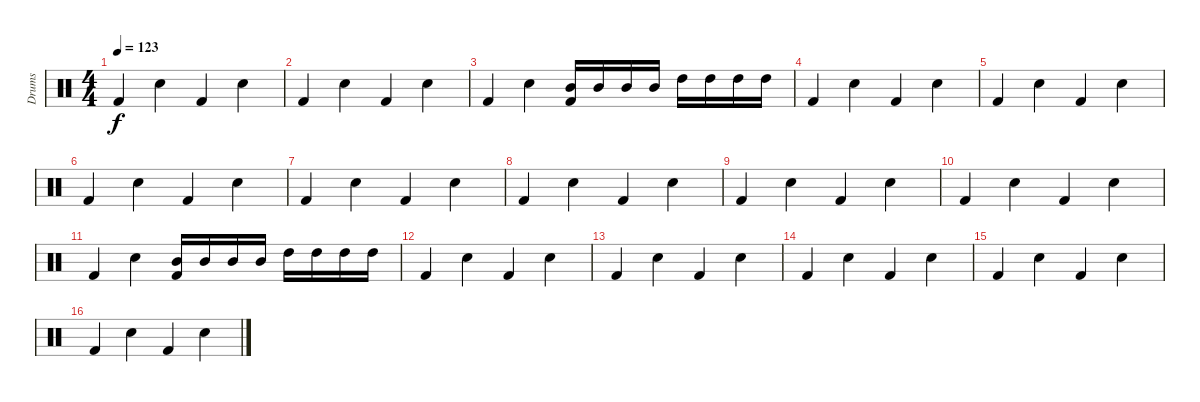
\track ("Drums" "Drums") {instrument percussion}
\staff {score}
\articulation defaults
\ts (4 4)
\tempo 123
\clef neutral
\ks c "Kick (hit) 2".4{dy f} "Electric Snare (hit)".4 "Kick (hit) 2".4 "Electric Snare (hit)".4
|
"Kick (hit) 2".4 "Electric Snare (hit)".4 "Kick (hit) 2".4 "Electric Snare (hit)".4 |
"Kick (hit) 2".4 "Electric Snare (hit)".4 ("Mid Tom (hit)" "Kick (hit) 2").16 "Mid Tom (hit)".16 "Mid Tom (hit)".16 "Mid Tom (hit)".16 "High Tom (hit)".16 "High Tom (hit)".16 "High Tom (hit)".16 "High Tom (hit)".16 |
"Kick (hit) 2".4 "Electric Snare (hit)".4 "Kick (hit) 2".4 "Electric Snare (hit)".4 |
"Kick (hit) 2".4 "Electric Snare (hit)".4 "Kick (hit) 2".4 "Electric Snare (hit)".4 |
"Kick (hit) 2".4 "Electric Snare (hit)".4 "Kick (hit) 2".4 "Electric Snare (hit)".4 |
"Kick (hit) 2".4 "Electric Snare (hit)".4 "Kick (hit) 2".4 "Electric Snare (hit)".4 |
"Kick (hit) 2".4 "Electric Snare (hit)".4 "Kick (hit) 2".4 "Electric Snare (hit)".4 |
"Kick (hit) 2".4 "Electric Snare (hit)".4 "Kick (hit) 2".4 "Electric Snare (hit)".4 |
"Kick (hit) 2".4 "Electric Snare (hit)".4 "Kick (hit) 2".4 "Electric Snare (hit)".4 |
"Kick (hit) 2".4 "Electric Snare (hit)".4 ("Mid Tom (hit)" "Kick (hit) 2").16 "Mid Tom (hit)".16 "Mid Tom (hit)".16 "Mid Tom (hit)".16 "High Tom (hit)".16 "High Tom (hit)".16 "High Tom (hit)".16 "High Tom (hit)".16 |
"Kick (hit) 2".4 "Electric Snare (hit)".4 "Kick (hit) 2".4 "Electric Snare (hit)".4 |
"Kick (hit) 2".4 "Electric Snare (hit)".4 "Kick (hit) 2".4 "Electric Snare (hit)".4 |
"Kick (hit) 2".4 "Electric Snare (hit)".4 "Kick (hit) 2".4 "Electric Snare (hit)".4 |
"Kick (hit) 2".4 "Electric Snare (hit)".4 "Kick (hit) 2".4 "Electric Snare (hit)".4 |
"Kick (hit) 2".4 "Electric Snare (hit)".4 "Kick (hit) 2".4 "Electric Snare (hit)".4
